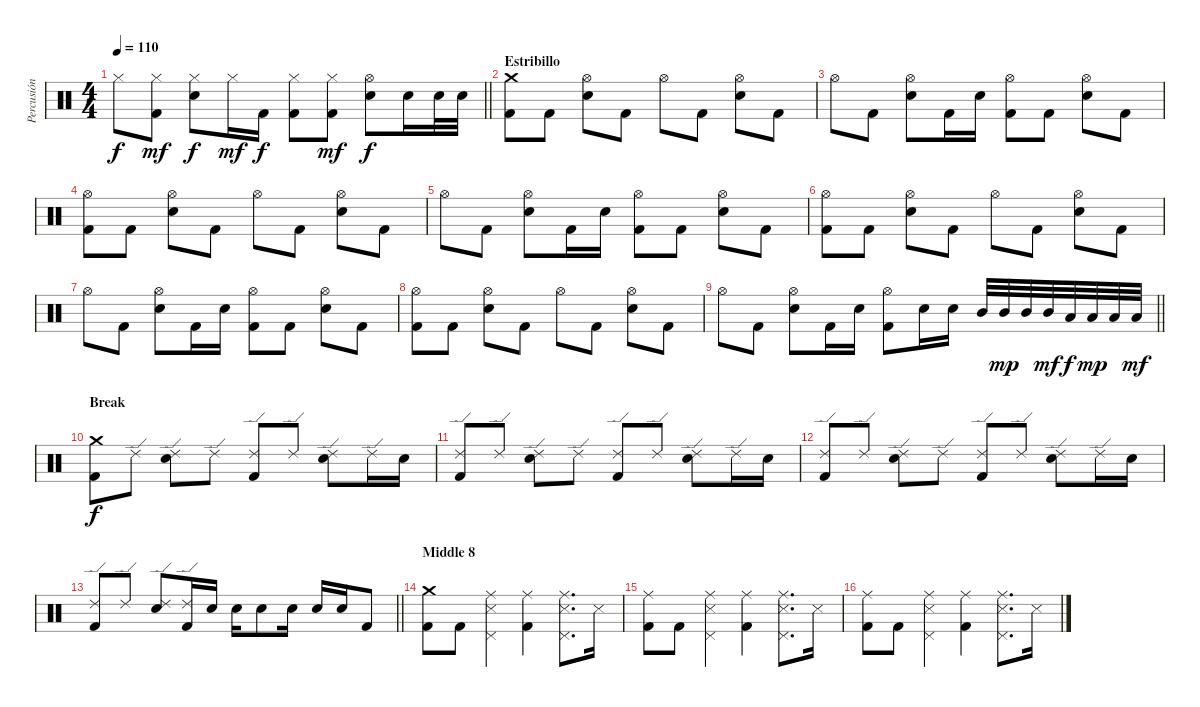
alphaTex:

\track ("Percusión" "Percusión") {instrument percussion}
\staff {score}
\articulation defaults
\ts (4 4)
\tempo 110
\clef neutral
\barLineRight lightlight
\ks c "Hi-Hat (closed)".8{dy f}
("Hi-Hat (closed)" "Kick (hit) 2").8{dy mf} ("Hi-Hat (closed)" "Electric Snare (hit)").8{dy f} "Hi-Hat (closed)".16{dy mf} "Kick (hit) 2".16{dy f} ("Hi-Hat (closed)" "Kick (hit) 2").8 ("Hi-Hat (closed)" "Kick (hit) 2").8{dy mf} ("Hi-Hat (open)" "Electric Snare (hit)").8{dy f} "Electric Snare (hit)".16 "Electric Snare (hit)".32 "Electric Snare (hit)".32 |
\section ("" "Estribillo")
("Crash medium (hit)" "Kick (hit) 2").8 "Kick (hit) 2".8 ("Hi-Hat (open)" "Electric Snare (hit)").8 "Kick (hit) 2".8 "Hi-Hat (open)".8 "Kick (hit) 2".8 ("Hi-Hat (open)" "Electric Snare (hit)").8 "Kick (hit) 2".8 |
"Hi-Hat (open)".8 "Kick (hit) 2".8 ("Hi-Hat (open)" "Electric Snare (hit)").8 "Kick (hit) 2".16 "Electric Snare (hit)".16 ("Hi-Hat (open)" "Kick (hit) 2").8 "Kick (hit) 2".8 ("Hi-Hat (open)" "Electric Snare (hit)").8 "Kick (hit) 2".8 |
("Hi-Hat (open)" "Kick (hit) 2").8 "Kick (hit) 2".8 ("Hi-Hat (open)" "Electric Snare (hit)").8 "Kick (hit) 2".8 "Hi-Hat (open)".8 "Kick (hit) 2".8 ("Hi-Hat (open)" "Electric Snare (hit)").8 "Kick (hit) 2".8 |
"Hi-Hat (open)".8 "Kick (hit) 2".8 ("Hi-Hat (open)" "Electric Snare (hit)").8 "Kick (hit) 2".16 "Electric Snare (hit)".16 ("Hi-Hat (open)" "Kick (hit) 2").8 "Kick (hit) 2".8 ("Hi-Hat (open)" "Electric Snare (hit)").8 "Kick (hit) 2".8 |
("Hi-Hat (open)" "Kick (hit) 2").8 "Kick (hit) 2".8 ("Hi-Hat (open)" "Electric Snare (hit)").8 "Kick (hit) 2".8 "Hi-Hat (open)".8 "Kick (hit) 2".8 ("Hi-Hat (open)" "Electric Snare (hit)").8 "Kick (hit) 2".8 |
"Hi-Hat (open)".8 "Kick (hit) 2".8 ("Hi-Hat (open)" "Electric Snare (hit)").8 "Kick (hit) 2".16 "Electric Snare (hit)".16 ("Hi-Hat (open)" "Kick (hit) 2").8 "Kick (hit) 2".8 ("Hi-Hat (open)" "Electric Snare (hit)").8 "Kick (hit) 2".8 |
("Hi-Hat (open)" "Kick (hit) 2").8 "Kick (hit) 2".8 ("Hi-Hat (open)" "Electric Snare (hit)").8 "Kick (hit) 2".8 "Hi-Hat (open)".8 "Kick (hit) 2".8 ("Hi-Hat (open)" "Electric Snare (hit)").8 "Kick (hit) 2".8 |
\barLineRight lightlight "Hi-Hat (open)".8 "Kick (hit) 2".8
("Hi-Hat (open)" "Electric Snare (hit)").8 "Kick (hit) 2".16 "Electric Snare (hit)".16 ("Hi-Hat (open)" "Kick (hit) 2").8 "Electric Snare (hit)".16 "Electric Snare (hit)".16 "Mid Tom (hit)".32 "Mid Tom (hit)".32{dy mp} "Mid Tom (hit)".32 "Mid Tom (hit)".32{dy mf} "Low Tom (hit)".32{dy f} "Low Tom (hit)".32{dy mp} "Low Tom (hit)".32 "Low Tom (hit)".32{dy mf} |
\section ("" "Break")
("Crash medium (hit)" "Kick (hit) 2").8{dy f} "Ride (edge) 2".8 ("Ride (edge) 2" "Electric Snare (hit)").8 "Ride (edge) 2".8 ("Ride (edge) 2" "Kick (hit) 2").8 "Ride (edge) 2".8 ("Ride (edge) 2" "Electric Snare (hit)").8 "Ride (edge) 2".16 "Electric Snare (hit)".16 |
("Ride (edge) 2" "Kick (hit) 2").8 "Ride (edge) 2".8 ("Ride (edge) 2" "Electric Snare (hit)").8 "Ride (edge) 2".8 ("Ride (edge) 2" "Kick (hit) 2").8 "Ride (edge) 2".8 ("Ride (edge) 2" "Electric Snare (hit)").8 "Ride (edge) 2".16 "Electric Snare (hit)".16 |
("Ride (edge) 2" "Kick (hit) 2").8 "Ride (edge) 2".8 ("Ride (edge) 2" "Electric Snare (hit)").8 "Ride (edge) 2".8 ("Ride (edge) 2" "Kick (hit) 2").8 "Ride (edge) 2".8 ("Ride (edge) 2" "Electric Snare (hit)").8 "Ride (edge) 2".16 "Electric Snare (hit)".16 |
\barLineRight lightlight
("Ride (edge) 2" "Kick (hit) 2").8 "Ride (edge) 2".8 ("Ride (edge) 2" "Electric Snare (hit)").8 ("Ride (edge) 2" "Kick (hit) 2").16 "Electric Snare (hit)".16 "Electric Snare (hit)".16 "Electric Snare (hit)".8 "Electric Snare (hit)".16 "Electric Snare (hit)".16 "Electric Snare (hit)".16 "Kick (hit) 2".8 |
\section ("" "Middle 8")
("Crash medium (hit)" "Kick (hit) 2").8 "Kick (hit) 2".8 ("Ride (middle)" "Pedal Hi-Hat (hit)" "Snare (side stick) 3").4 ("Ride (middle)" "Kick (hit) 2").4 ("Ride (middle)" "Pedal Hi-Hat (hit)" "Snare (side stick) 3").8{d} "Snare (side stick) 3".16 |
("Ride (middle)" "Kick (hit) 2").8 "Kick (hit) 2".8 ("Ride (middle)" "Pedal Hi-Hat (hit)" "Snare (side stick) 3").4 ("Ride (middle)" "Kick (hit) 2").4 ("Ride (middle)" "Pedal Hi-Hat (hit)" "Snare (side stick) 3").8{d} "Snare (side stick) 3".16 |
("Ride (middle)" "Kick (hit) 2").8 "Kick (hit) 2".8 ("Ride (middle)" "Pedal Hi-Hat (hit)" "Snare (side stick) 3").4 ("Ride (middle)" "Kick (hit) 2").4 ("Ride (middle)" "Pedal Hi-Hat (hit)" "Snare (side stick) 3").8{d} "Snare (side stick) 3".16
